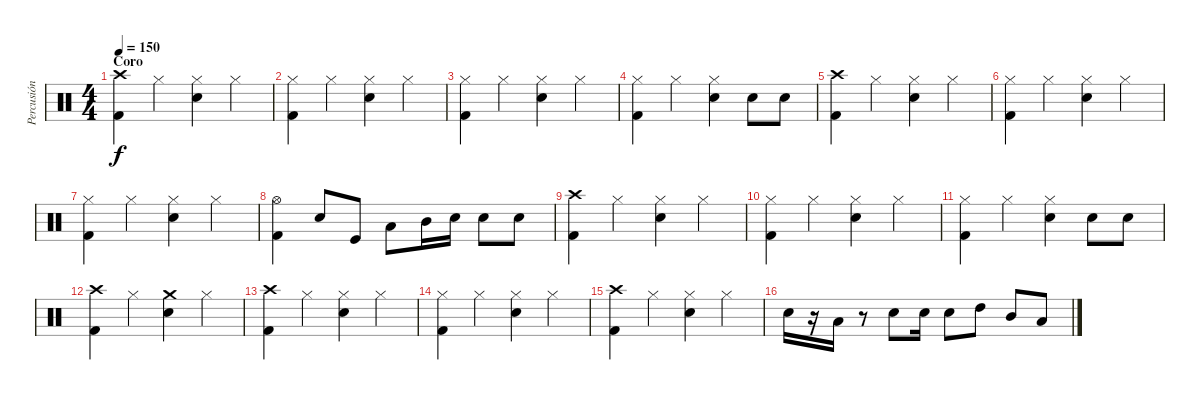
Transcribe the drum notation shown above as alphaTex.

\track ("Percusión" "Percusión") {instrument percussion}
\staff {score}
\articulation defaults
\ts (4 4)
\section ("" "Coro")
\tempo 150
\clef neutral
\ks c
("Crash high (hit)" "Kick (hit) 2").4{dy f} "Hi-Hat (closed)".4 ("Hi-Hat (closed)" "Electric Snare (hit)").4 "Hi-Hat (closed)".4 |
("Hi-Hat (closed)" "Kick (hit) 2").4 "Hi-Hat (closed)".4 ("Hi-Hat (closed)" "Electric Snare (hit)").4 "Hi-Hat (closed)".4 |
("Hi-Hat (closed)" "Kick (hit) 2").4 "Hi-Hat (closed)".4 ("Hi-Hat (closed)" "Electric Snare (hit)").4 "Hi-Hat (closed)".4 |
("Hi-Hat (closed)" "Kick (hit) 2").4 "Hi-Hat (closed)".4 ("Hi-Hat (closed)" "Electric Snare (hit)").4 "Electric Snare (hit)".8 "Electric Snare (hit)".8 |
("Crash high (hit)" "Kick (hit) 2").4 "Hi-Hat (closed)".4 ("Hi-Hat (closed)" "Electric Snare (hit)").4 "Hi-Hat (closed)".4 |
("Hi-Hat (closed)" "Kick (hit) 2").4 "Hi-Hat (closed)".4 ("Hi-Hat (closed)" "Electric Snare (hit)").4 "Hi-Hat (closed)".4 |
("Hi-Hat (closed)" "Kick (hit) 2").4 "Hi-Hat (closed)".4 ("Hi-Hat (closed)" "Electric Snare (hit)").4 "Hi-Hat (closed)".4 |
("Hi-Hat (open)" "Kick (hit) 2").4 "Electric Snare (hit)".8 "Kick (hit)".8 "Low Tom (hit)".8 "Mid Tom (hit)".16 "Electric Snare (hit)".16 "Electric Snare (hit)".8 "Electric Snare (hit)".8 |
("Crash high (hit)" "Kick (hit) 2").4 "Hi-Hat (closed)".4 ("Hi-Hat (closed)" "Electric Snare (hit)").4 "Hi-Hat (closed)".4 |
("Hi-Hat (closed)" "Kick (hit) 2").4 "Hi-Hat (closed)".4 ("Hi-Hat (closed)" "Electric Snare (hit)").4 "Hi-Hat (closed)".4 |
("Hi-Hat (closed)" "Kick (hit) 2").4 "Hi-Hat (closed)".4 ("Hi-Hat (closed)" "Electric Snare (hit)").4 "Electric Snare (hit)".8 "Electric Snare (hit)".8 |
("Crash high (hit)" "Kick (hit) 2").4 "Hi-Hat (closed)".4 ("Crash medium (hit)" "Electric Snare (hit)").4 "Hi-Hat (closed)".4 |
("Crash high (hit)" "Kick (hit) 2").4 "Hi-Hat (closed)".4 ("Hi-Hat (closed)" "Electric Snare (hit)").4 "Hi-Hat (closed)".4 |
("Hi-Hat (closed)" "Kick (hit) 2").4 "Hi-Hat (closed)".4 ("Hi-Hat (closed)" "Electric Snare (hit)").4 "Hi-Hat (closed)".4 |
("Crash high (hit)" "Kick (hit) 2").4 "Hi-Hat (closed)".4 ("Hi-Hat (closed)" "Electric Snare (hit)").4 "Hi-Hat (closed)".4 |
"Electric Snare (hit)".16 r.16 "Low Tom (hit)".16 r.8 "Electric Snare (hit)".8 "Electric Snare (hit)".16 "Electric Snare (hit)".8 "High Tom (hit)".8 "Mid Tom (hit)".8 "Low Tom (hit)".8
